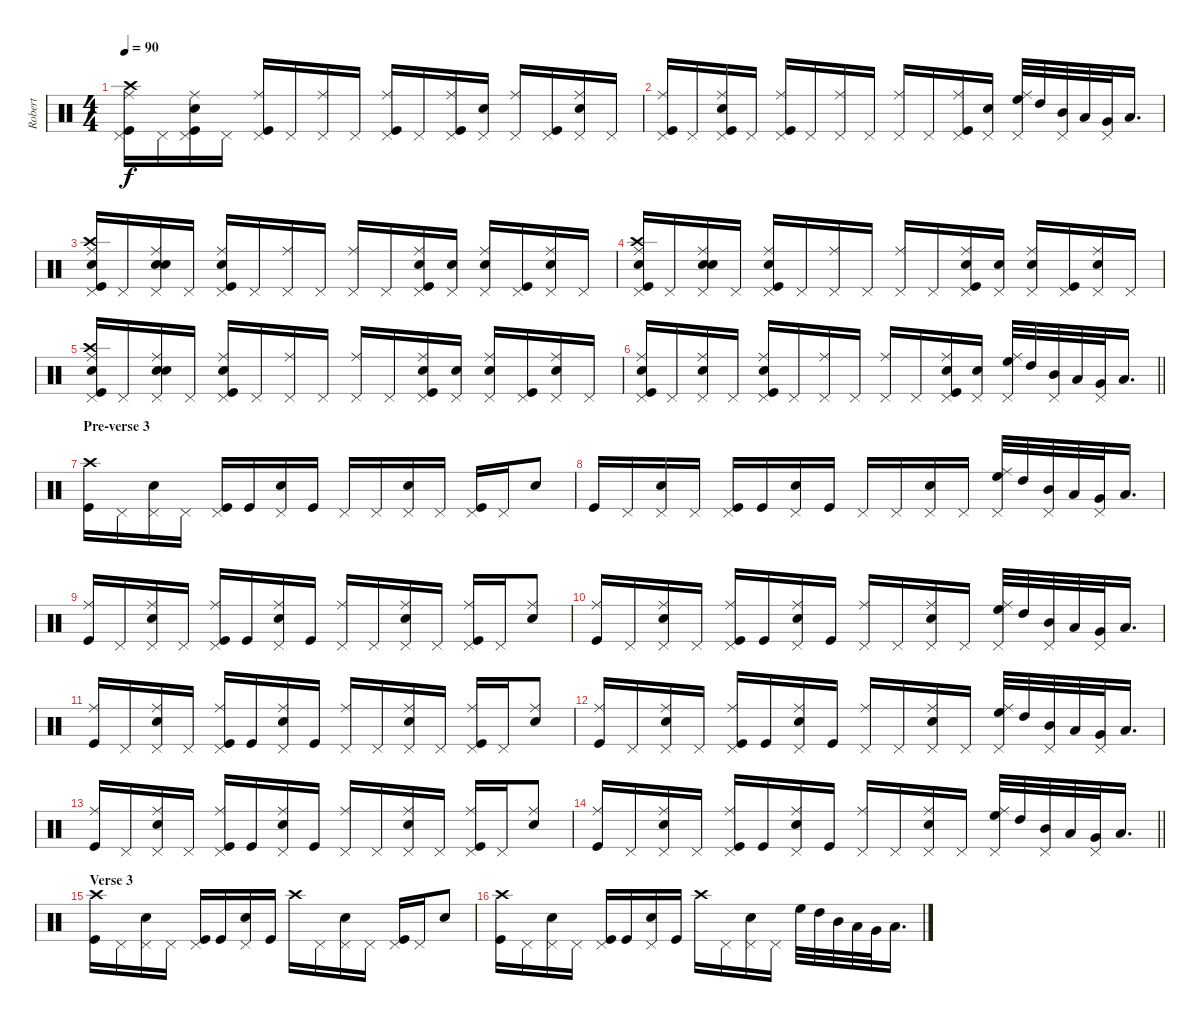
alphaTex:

\track ("Robert" "Robert") {instrument percussion}
\staff {score}
\articulation defaults
\ts (4 4)
\tempo 90
\clef neutral
\ks c
("Kick (hit)" "Ride (middle)" "Pedal Hi-Hat (hit)" "Crash high (hit)").16{dy f} "Pedal Hi-Hat (hit)".16 ("Ride (middle)" "Snare (hit) 2" "Pedal Hi-Hat (hit)" "Kick (hit)").16 "Pedal Hi-Hat (hit)".16 ("Kick (hit)" "Ride (middle)" "Pedal Hi-Hat (hit)").16 "Pedal Hi-Hat (hit)".16 ("Ride (middle)" "Pedal Hi-Hat (hit)").16 "Pedal Hi-Hat (hit)".16 ("Ride (middle)" "Pedal Hi-Hat (hit)" "Kick (hit)").16 "Pedal Hi-Hat (hit)".16 ("Kick (hit)" "Ride (middle)" "Pedal Hi-Hat (hit)").16 ("Snare (hit) 2" "Pedal Hi-Hat (hit)").16 ("Pedal Hi-Hat (hit)" "Ride (middle)").16 ("Kick (hit)" "Pedal Hi-Hat (hit)").16 ("Pedal Hi-Hat (hit)" "Snare (hit) 2" "Ride (middle)").16 "Pedal Hi-Hat (hit)".16 |
("Kick (hit)" "Ride (middle)" "Pedal Hi-Hat (hit)").16 "Pedal Hi-Hat (hit)".16 ("Ride (middle)" "Snare (hit) 2" "Kick (hit)" "Pedal Hi-Hat (hit)").16 "Pedal Hi-Hat (hit)".16 ("Kick (hit)" "Ride (middle)" "Pedal Hi-Hat (hit)").16 "Pedal Hi-Hat (hit)".16 ("Ride (middle)" "Pedal Hi-Hat (hit)").16 "Pedal Hi-Hat (hit)".16 ("Ride (middle)" "Pedal Hi-Hat (hit)").16 "Pedal Hi-Hat (hit)".16 ("Kick (hit)" "Ride (middle)" "Pedal Hi-Hat (hit)").16 ("Snare (hit) 2" "Pedal Hi-Hat (hit)").16 ("High Floor Tom (hit)" "Pedal Hi-Hat (hit)" "Ride (middle)").32 "High Tom (hit)".32 ("Mid Tom (hit)" "Pedal Hi-Hat (hit)").32 "Low Tom (hit)".32 ("Very Low Tom (hit)" "Pedal Hi-Hat (hit)").32 "Low Floor Tom (hit)".16{d} |
("Kick (hit)" "Ride (middle)" "Snare (hit) 2" "Pedal Hi-Hat (hit)" "Crash high (hit)").16 "Pedal Hi-Hat (hit)".16 ("Ride (middle)" "Snare (hit) 2" "Snare (hit) 2" "Pedal Hi-Hat (hit)").16 "Pedal Hi-Hat (hit)".16 ("Kick (hit)" "Ride (middle)" "Snare (hit) 2" "Pedal Hi-Hat (hit)").16 "Pedal Hi-Hat (hit)".16 ("Ride (middle)" "Pedal Hi-Hat (hit)").16 "Pedal Hi-Hat (hit)".16 ("Ride (middle)" "Pedal Hi-Hat (hit)").16 "Pedal Hi-Hat (hit)".16 ("Snare (hit) 2" "Kick (hit)" "Ride (middle)" "Pedal Hi-Hat (hit)").16 ("Snare (hit) 2" "Pedal Hi-Hat (hit)").16 ("Pedal Hi-Hat (hit)" "Ride (middle)" "Snare (hit) 2").16 ("Kick (hit)" "Pedal Hi-Hat (hit)").16 ("Pedal Hi-Hat (hit)" "Snare (hit) 2" "Ride (middle)").16 "Pedal Hi-Hat (hit)".16 |
("Kick (hit)" "Ride (middle)" "Snare (hit) 2" "Pedal Hi-Hat (hit)" "Crash high (hit)").16 "Pedal Hi-Hat (hit)".16 ("Ride (middle)" "Snare (hit) 2" "Snare (hit) 2" "Pedal Hi-Hat (hit)").16 "Pedal Hi-Hat (hit)".16 ("Kick (hit)" "Ride (middle)" "Snare (hit) 2" "Pedal Hi-Hat (hit)").16 "Pedal Hi-Hat (hit)".16 ("Ride (middle)" "Pedal Hi-Hat (hit)").16 "Pedal Hi-Hat (hit)".16 ("Ride (middle)" "Pedal Hi-Hat (hit)").16 "Pedal Hi-Hat (hit)".16 ("Snare (hit) 2" "Kick (hit)" "Ride (middle)" "Pedal Hi-Hat (hit)").16 ("Snare (hit) 2" "Pedal Hi-Hat (hit)").16 ("Pedal Hi-Hat (hit)" "Ride (middle)" "Snare (hit) 2").16 ("Kick (hit)" "Pedal Hi-Hat (hit)").16 ("Pedal Hi-Hat (hit)" "Snare (hit) 2" "Ride (middle)").16 "Pedal Hi-Hat (hit)".16 |
("Kick (hit)" "Ride (middle)" "Snare (hit) 2" "Pedal Hi-Hat (hit)" "Crash high (hit)").16 "Pedal Hi-Hat (hit)".16 ("Ride (middle)" "Snare (hit) 2" "Snare (hit) 2" "Pedal Hi-Hat (hit)").16 "Pedal Hi-Hat (hit)".16 ("Kick (hit)" "Ride (middle)" "Snare (hit) 2" "Pedal Hi-Hat (hit)").16 "Pedal Hi-Hat (hit)".16 ("Ride (middle)" "Pedal Hi-Hat (hit)").16 "Pedal Hi-Hat (hit)".16 ("Ride (middle)" "Pedal Hi-Hat (hit)").16 "Pedal Hi-Hat (hit)".16 ("Snare (hit) 2" "Kick (hit)" "Ride (middle)" "Pedal Hi-Hat (hit)").16 ("Snare (hit) 2" "Pedal Hi-Hat (hit)").16 ("Pedal Hi-Hat (hit)" "Ride (middle)" "Snare (hit) 2").16 ("Kick (hit)" "Pedal Hi-Hat (hit)").16 ("Pedal Hi-Hat (hit)" "Snare (hit) 2" "Ride (middle)").16 "Pedal Hi-Hat (hit)".16 |
\barLineRight lightlight
("Kick (hit)" "Ride (middle)" "Snare (hit) 2" "Pedal Hi-Hat (hit)").16 "Pedal Hi-Hat (hit)".16 ("Ride (middle)" "Snare (hit) 2" "Pedal Hi-Hat (hit)").16 "Pedal Hi-Hat (hit)".16 ("Kick (hit)" "Ride (middle)" "Snare (hit) 2" "Pedal Hi-Hat (hit)").16 "Pedal Hi-Hat (hit)".16 ("Ride (middle)" "Pedal Hi-Hat (hit)").16 "Pedal Hi-Hat (hit)".16 ("Ride (middle)" "Pedal Hi-Hat (hit)").16 "Pedal Hi-Hat (hit)".16 ("Snare (hit) 2" "Kick (hit)" "Ride (middle)" "Pedal Hi-Hat (hit)").16 ("Snare (hit) 2" "Pedal Hi-Hat (hit)").16 ("High Floor Tom (hit)" "Pedal Hi-Hat (hit)" "Ride (middle)").32 "High Tom (hit)".32 ("Mid Tom (hit)" "Pedal Hi-Hat (hit)").32 "Low Tom (hit)".32 ("Very Low Tom (hit)" "Pedal Hi-Hat (hit)").32 "Low Floor Tom (hit)".16{d} |
\section ("" "Pre-verse 3")
("Crash high (hit)" "Kick (hit)").16 "Pedal Hi-Hat (hit)".16 ("Pedal Hi-Hat (hit)" "Snare (hit) 2").16 "Pedal Hi-Hat (hit)".16 ("Pedal Hi-Hat (hit)" "Kick (hit)").16 "Kick (hit)".16 ("Pedal Hi-Hat (hit)" "Snare (hit) 2").16 "Kick (hit)".16 "Pedal Hi-Hat (hit)".16 "Pedal Hi-Hat (hit)".16 ("Pedal Hi-Hat (hit)" "Snare (hit) 2").16 "Pedal Hi-Hat (hit)".16 ("Pedal Hi-Hat (hit)" "Kick (hit)").16 "Pedal Hi-Hat (hit)".16 "Snare (hit) 2".8 |
"Kick (hit)".16 "Pedal Hi-Hat (hit)".16 ("Pedal Hi-Hat (hit)" "Snare (hit) 2").16 "Pedal Hi-Hat (hit)".16 ("Pedal Hi-Hat (hit)" "Kick (hit)").16 "Kick (hit)".16 ("Pedal Hi-Hat (hit)" "Snare (hit) 2").16 "Kick (hit)".16 "Pedal Hi-Hat (hit)".16 "Pedal Hi-Hat (hit)".16 ("Pedal Hi-Hat (hit)" "Snare (hit) 2").16 "Pedal Hi-Hat (hit)".16 ("High Floor Tom (hit)" "Pedal Hi-Hat (hit)" "Ride (middle)").32 "High Tom (hit)".32 ("Mid Tom (hit)" "Pedal Hi-Hat (hit)").32 "Low Tom (hit)".32 ("Very Low Tom (hit)" "Pedal Hi-Hat (hit)").32 "Low Floor Tom (hit)".16{d} |
("Ride (middle)" "Kick (hit)").16 "Pedal Hi-Hat (hit)".16 ("Pedal Hi-Hat (hit)" "Ride (middle)" "Snare (hit) 2").16 "Pedal Hi-Hat (hit)".16 ("Pedal Hi-Hat (hit)" "Ride (middle)" "Kick (hit)").16 "Kick (hit)".16 ("Pedal Hi-Hat (hit)" "Ride (middle)" "Snare (hit) 2").16 "Kick (hit)".16 ("Pedal Hi-Hat (hit)" "Ride (middle)").16 "Pedal Hi-Hat (hit)".16 ("Pedal Hi-Hat (hit)" "Ride (middle)" "Snare (hit) 2").16 "Pedal Hi-Hat (hit)".16 ("Pedal Hi-Hat (hit)" "Ride (middle)" "Kick (hit)").16 "Pedal Hi-Hat (hit)".16 ("Ride (middle)" "Snare (hit) 2").8 |
("Ride (middle)" "Kick (hit)").16 "Pedal Hi-Hat (hit)".16 ("Pedal Hi-Hat (hit)" "Ride (middle)" "Snare (hit) 2").16 "Pedal Hi-Hat (hit)".16 ("Pedal Hi-Hat (hit)" "Ride (middle)" "Kick (hit)").16 "Kick (hit)".16 ("Pedal Hi-Hat (hit)" "Ride (middle)" "Snare (hit) 2").16 "Kick (hit)".16 ("Pedal Hi-Hat (hit)" "Ride (middle)").16 "Pedal Hi-Hat (hit)".16 ("Pedal Hi-Hat (hit)" "Ride (middle)" "Snare (hit) 2").16 "Pedal Hi-Hat (hit)".16 ("High Floor Tom (hit)" "Pedal Hi-Hat (hit)" "Ride (middle)").32 "High Tom (hit)".32 ("Mid Tom (hit)" "Pedal Hi-Hat (hit)").32 "Low Tom (hit)".32 ("Very Low Tom (hit)" "Pedal Hi-Hat (hit)").32 "Low Floor Tom (hit)".16{d} |
("Ride (middle)" "Kick (hit)").16 "Pedal Hi-Hat (hit)".16 ("Pedal Hi-Hat (hit)" "Ride (middle)" "Snare (hit) 2").16 "Pedal Hi-Hat (hit)".16 ("Pedal Hi-Hat (hit)" "Ride (middle)" "Kick (hit)").16 "Kick (hit)".16 ("Pedal Hi-Hat (hit)" "Ride (middle)" "Snare (hit) 2").16 "Kick (hit)".16 ("Pedal Hi-Hat (hit)" "Ride (middle)").16 "Pedal Hi-Hat (hit)".16 ("Pedal Hi-Hat (hit)" "Ride (middle)" "Snare (hit) 2").16 "Pedal Hi-Hat (hit)".16 ("Pedal Hi-Hat (hit)" "Ride (middle)" "Kick (hit)").16 "Pedal Hi-Hat (hit)".16 ("Ride (middle)" "Snare (hit) 2").8 |
("Ride (middle)" "Kick (hit)").16 "Pedal Hi-Hat (hit)".16 ("Pedal Hi-Hat (hit)" "Ride (middle)" "Snare (hit) 2").16 "Pedal Hi-Hat (hit)".16 ("Pedal Hi-Hat (hit)" "Ride (middle)" "Kick (hit)").16 "Kick (hit)".16 ("Pedal Hi-Hat (hit)" "Ride (middle)" "Snare (hit) 2").16 "Kick (hit)".16 ("Pedal Hi-Hat (hit)" "Ride (middle)").16 "Pedal Hi-Hat (hit)".16 ("Pedal Hi-Hat (hit)" "Ride (middle)" "Snare (hit) 2").16 "Pedal Hi-Hat (hit)".16 ("High Floor Tom (hit)" "Pedal Hi-Hat (hit)" "Ride (middle)").32 "High Tom (hit)".32 ("Mid Tom (hit)" "Pedal Hi-Hat (hit)").32 "Low Tom (hit)".32 ("Very Low Tom (hit)" "Pedal Hi-Hat (hit)").32 "Low Floor Tom (hit)".16{d} |
("Ride (middle)" "Kick (hit)").16 "Pedal Hi-Hat (hit)".16 ("Pedal Hi-Hat (hit)" "Ride (middle)" "Snare (hit) 2").16 "Pedal Hi-Hat (hit)".16 ("Pedal Hi-Hat (hit)" "Ride (middle)" "Kick (hit)").16 "Kick (hit)".16 ("Pedal Hi-Hat (hit)" "Ride (middle)" "Snare (hit) 2").16 "Kick (hit)".16 ("Pedal Hi-Hat (hit)" "Ride (middle)").16 "Pedal Hi-Hat (hit)".16 ("Pedal Hi-Hat (hit)" "Ride (middle)" "Snare (hit) 2").16 "Pedal Hi-Hat (hit)".16 ("Pedal Hi-Hat (hit)" "Ride (middle)" "Kick (hit)").16 "Pedal Hi-Hat (hit)".16 ("Ride (middle)" "Snare (hit) 2").8 |
\barLineRight lightlight
("Ride (middle)" "Kick (hit)").16 "Pedal Hi-Hat (hit)".16 ("Pedal Hi-Hat (hit)" "Ride (middle)" "Snare (hit) 2").16 "Pedal Hi-Hat (hit)".16 ("Pedal Hi-Hat (hit)" "Ride (middle)" "Kick (hit)").16 "Kick (hit)".16 ("Pedal Hi-Hat (hit)" "Ride (middle)" "Snare (hit) 2").16 "Kick (hit)".16 ("Pedal Hi-Hat (hit)" "Ride (middle)").16 "Pedal Hi-Hat (hit)".16 ("Pedal Hi-Hat (hit)" "Ride (middle)" "Snare (hit) 2").16 "Pedal Hi-Hat (hit)".16 ("High Floor Tom (hit)" "Pedal Hi-Hat (hit)" "Ride (middle)").32 "High Tom (hit)".32 ("Mid Tom (hit)" "Pedal Hi-Hat (hit)").32 "Low Tom (hit)".32 ("Very Low Tom (hit)" "Pedal Hi-Hat (hit)").32 "Low Floor Tom (hit)".16{d} |
\section ("" "Verse 3")
("Crash high (hit)" "Kick (hit)").16 "Pedal Hi-Hat (hit)".16 ("Pedal Hi-Hat (hit)" "Snare (hit) 2").16 "Pedal Hi-Hat (hit)".16 ("Pedal Hi-Hat (hit)" "Kick (hit)").16 "Kick (hit)".16 ("Pedal Hi-Hat (hit)" "Snare (hit) 2").16 "Kick (hit)".16 "Crash high (hit)".16 "Pedal Hi-Hat (hit)".16 ("Pedal Hi-Hat (hit)" "Snare (hit) 2").16 "Pedal Hi-Hat (hit)".16 ("Pedal Hi-Hat (hit)" "Kick (hit)").16 "Pedal Hi-Hat (hit)".16 "Snare (hit) 2".8 |
("Crash high (hit)" "Kick (hit)").16 "Pedal Hi-Hat (hit)".16 ("Pedal Hi-Hat (hit)" "Snare (hit) 2").16 "Pedal Hi-Hat (hit)".16 ("Pedal Hi-Hat (hit)" "Kick (hit)").16 "Kick (hit)".16 ("Pedal Hi-Hat (hit)" "Snare (hit) 2").16 "Kick (hit)".16 "Crash high (hit)".16 "Pedal Hi-Hat (hit)".16 ("Pedal Hi-Hat (hit)" "Snare (hit) 2").16 "Pedal Hi-Hat (hit)".16 "High Floor Tom (hit)".32 "High Tom (hit)".32 "Mid Tom (hit)".32 "Low Tom (hit)".32 "Very Low Tom (hit)".32 "Low Floor Tom (hit)".16{d}
